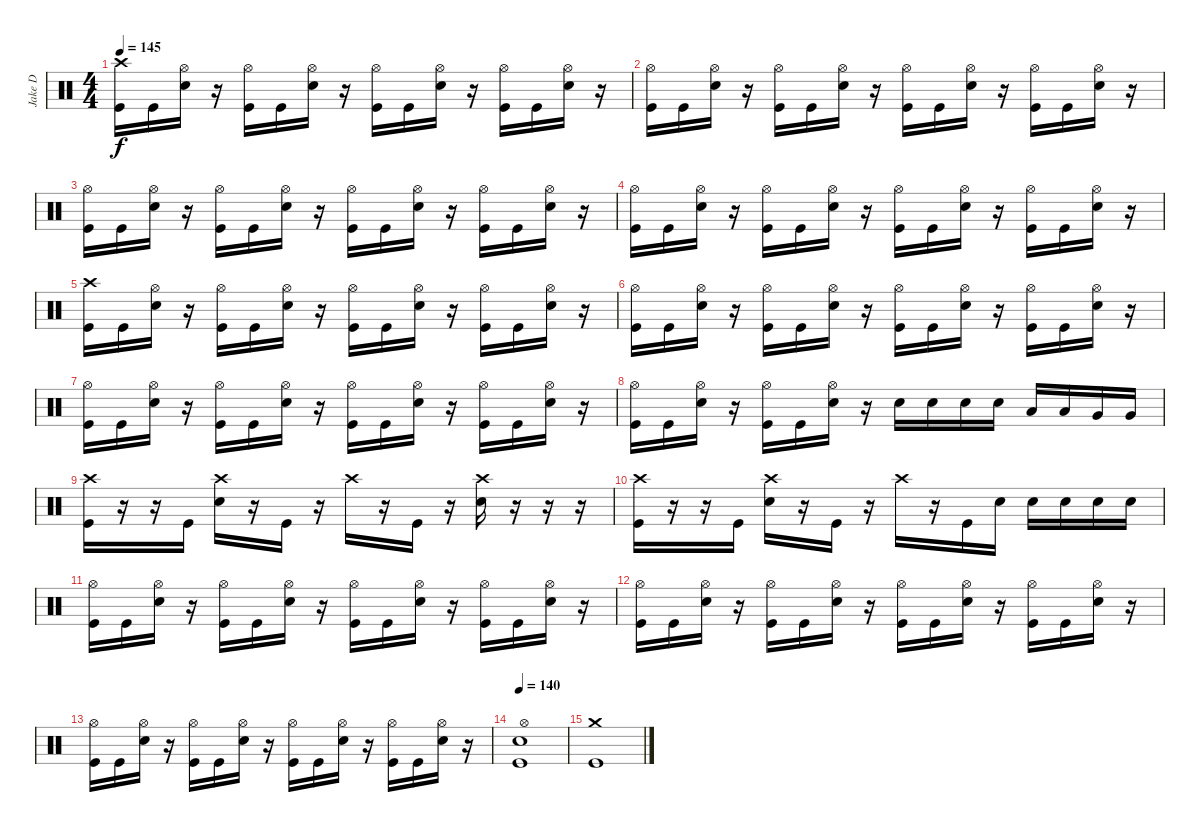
\track ("Jake D" "Jake D") {instrument percussion}
\staff {score}
\articulation defaults
\ts (4 4)
\tempo 145
\clef neutral
\ks c
("Crash high (hit)" "Kick (hit)").16{dy f} "Kick (hit)".16 ("Hi-Hat (open)" "Electric Snare (hit)").16 r.16 ("Hi-Hat (open)" "Kick (hit)").16 "Kick (hit)".16 ("Hi-Hat (open)" "Electric Snare (hit)").16 r.16 ("Hi-Hat (open)" "Kick (hit)").16 "Kick (hit)".16 ("Hi-Hat (open)" "Electric Snare (hit)").16 r.16 ("Hi-Hat (open)" "Kick (hit)").16 "Kick (hit)".16 ("Hi-Hat (open)" "Electric Snare (hit)").16 r.16 |
("Hi-Hat (open)" "Kick (hit)").16 "Kick (hit)".16 ("Hi-Hat (open)" "Electric Snare (hit)").16 r.16 ("Hi-Hat (open)" "Kick (hit)").16 "Kick (hit)".16 ("Hi-Hat (open)" "Electric Snare (hit)").16 r.16 ("Hi-Hat (open)" "Kick (hit)").16 "Kick (hit)".16 ("Hi-Hat (open)" "Electric Snare (hit)").16 r.16 ("Hi-Hat (open)" "Kick (hit)").16 "Kick (hit)".16 ("Hi-Hat (open)" "Electric Snare (hit)").16 r.16 |
("Hi-Hat (open)" "Kick (hit)").16 "Kick (hit)".16 ("Hi-Hat (open)" "Electric Snare (hit)").16 r.16 ("Hi-Hat (open)" "Kick (hit)").16 "Kick (hit)".16 ("Hi-Hat (open)" "Electric Snare (hit)").16 r.16 ("Hi-Hat (open)" "Kick (hit)").16 "Kick (hit)".16 ("Hi-Hat (open)" "Electric Snare (hit)").16 r.16 ("Hi-Hat (open)" "Kick (hit)").16 "Kick (hit)".16 ("Hi-Hat (open)" "Electric Snare (hit)").16 r.16 |
("Hi-Hat (open)" "Kick (hit)").16 "Kick (hit)".16 ("Hi-Hat (open)" "Electric Snare (hit)").16 r.16 ("Hi-Hat (open)" "Kick (hit)").16 "Kick (hit)".16 ("Hi-Hat (open)" "Electric Snare (hit)").16 r.16 ("Hi-Hat (open)" "Kick (hit)").16 "Kick (hit)".16 ("Hi-Hat (open)" "Electric Snare (hit)").16 r.16 ("Hi-Hat (open)" "Kick (hit)").16 "Kick (hit)".16 ("Hi-Hat (open)" "Electric Snare (hit)").16 r.16 |
("Crash high (hit)" "Kick (hit)").16 "Kick (hit)".16 ("Hi-Hat (open)" "Electric Snare (hit)").16 r.16 ("Hi-Hat (open)" "Kick (hit)").16 "Kick (hit)".16 ("Hi-Hat (open)" "Electric Snare (hit)").16 r.16 ("Hi-Hat (open)" "Kick (hit)").16 "Kick (hit)".16 ("Hi-Hat (open)" "Electric Snare (hit)").16 r.16 ("Hi-Hat (open)" "Kick (hit)").16 "Kick (hit)".16 ("Hi-Hat (open)" "Electric Snare (hit)").16 r.16 |
("Hi-Hat (open)" "Kick (hit)").16 "Kick (hit)".16 ("Hi-Hat (open)" "Electric Snare (hit)").16 r.16 ("Hi-Hat (open)" "Kick (hit)").16 "Kick (hit)".16 ("Hi-Hat (open)" "Electric Snare (hit)").16 r.16 ("Hi-Hat (open)" "Kick (hit)").16 "Kick (hit)".16 ("Hi-Hat (open)" "Electric Snare (hit)").16 r.16 ("Hi-Hat (open)" "Kick (hit)").16 "Kick (hit)".16 ("Hi-Hat (open)" "Electric Snare (hit)").16 r.16 |
("Hi-Hat (open)" "Kick (hit)").16 "Kick (hit)".16 ("Hi-Hat (open)" "Electric Snare (hit)").16 r.16 ("Hi-Hat (open)" "Kick (hit)").16 "Kick (hit)".16 ("Hi-Hat (open)" "Electric Snare (hit)").16 r.16 ("Hi-Hat (open)" "Kick (hit)").16 "Kick (hit)".16 ("Hi-Hat (open)" "Electric Snare (hit)").16 r.16 ("Hi-Hat (open)" "Kick (hit)").16 "Kick (hit)".16 ("Hi-Hat (open)" "Electric Snare (hit)").16 r.16 |
("Hi-Hat (open)" "Kick (hit)").16 "Kick (hit)".16 ("Hi-Hat (open)" "Electric Snare (hit)").16 r.16 ("Hi-Hat (open)" "Kick (hit)").16 "Kick (hit)".16 ("Hi-Hat (open)" "Electric Snare (hit)").16 r.16 "Electric Snare (hit)".16 "Electric Snare (hit)".16 "Electric Snare (hit)".16 "Electric Snare (hit)".16 "Low Tom (hit)".16 "Low Tom (hit)".16 "Very Low Tom (hit)".16 "Very Low Tom (hit)".16 |
("Crash high (hit)" "Kick (hit)").16 r.16 r.16 "Kick (hit)".16 ("Crash high (hit)" "Electric Snare (hit)").16 r.16 "Kick (hit)".16 r.16 "Crash high (hit)".16 r.16 "Kick (hit)".16 r.16 ("Crash high (hit)" "Electric Snare (hit)").16 r.16 r.16 r.16 |
("Crash high (hit)" "Kick (hit)").16 r.16 r.16 "Kick (hit)".16 ("Crash high (hit)" "Electric Snare (hit)").16 r.16 "Kick (hit)".16 r.16 "Crash high (hit)".16 r.16 "Kick (hit)".16 "Electric Snare (hit)".16 "Electric Snare (hit)".16 "Electric Snare (hit)".16 "Electric Snare (hit)".16 "Electric Snare (hit)".16 |
("Hi-Hat (open)" "Kick (hit)").16 "Kick (hit)".16 ("Hi-Hat (open)" "Electric Snare (hit)").16 r.16 ("Hi-Hat (open)" "Kick (hit)").16 "Kick (hit)".16 ("Hi-Hat (open)" "Electric Snare (hit)").16 r.16 ("Hi-Hat (open)" "Kick (hit)").16 "Kick (hit)".16 ("Hi-Hat (open)" "Electric Snare (hit)").16 r.16 ("Hi-Hat (open)" "Kick (hit)").16 "Kick (hit)".16 ("Hi-Hat (open)" "Electric Snare (hit)").16 r.16 |
("Hi-Hat (open)" "Kick (hit)").16 "Kick (hit)".16 ("Hi-Hat (open)" "Electric Snare (hit)").16 r.16 ("Hi-Hat (open)" "Kick (hit)").16 "Kick (hit)".16 ("Hi-Hat (open)" "Electric Snare (hit)").16 r.16 ("Hi-Hat (open)" "Kick (hit)").16 "Kick (hit)".16 ("Hi-Hat (open)" "Electric Snare (hit)").16 r.16 ("Hi-Hat (open)" "Kick (hit)").16 "Kick (hit)".16 ("Hi-Hat (open)" "Electric Snare (hit)").16 r.16 |
("Hi-Hat (open)" "Kick (hit)").16 "Kick (hit)".16 ("Hi-Hat (open)" "Electric Snare (hit)").16 r.16 ("Hi-Hat (open)" "Kick (hit)").16 "Kick (hit)".16 ("Hi-Hat (open)" "Electric Snare (hit)").16 r.16 ("Hi-Hat (open)" "Kick (hit)").16 "Kick (hit)".16 ("Hi-Hat (open)" "Electric Snare (hit)").16 r.16 ("Hi-Hat (open)" "Kick (hit)").16 "Kick (hit)".16 ("Hi-Hat (open)" "Electric Snare (hit)").16 r.16 |
\tempo 140
("Hi-Hat (open)" "Electric Snare (hit)" "Kick (hit)").1 |
("Crash medium (hit)" "Kick (hit)").1
